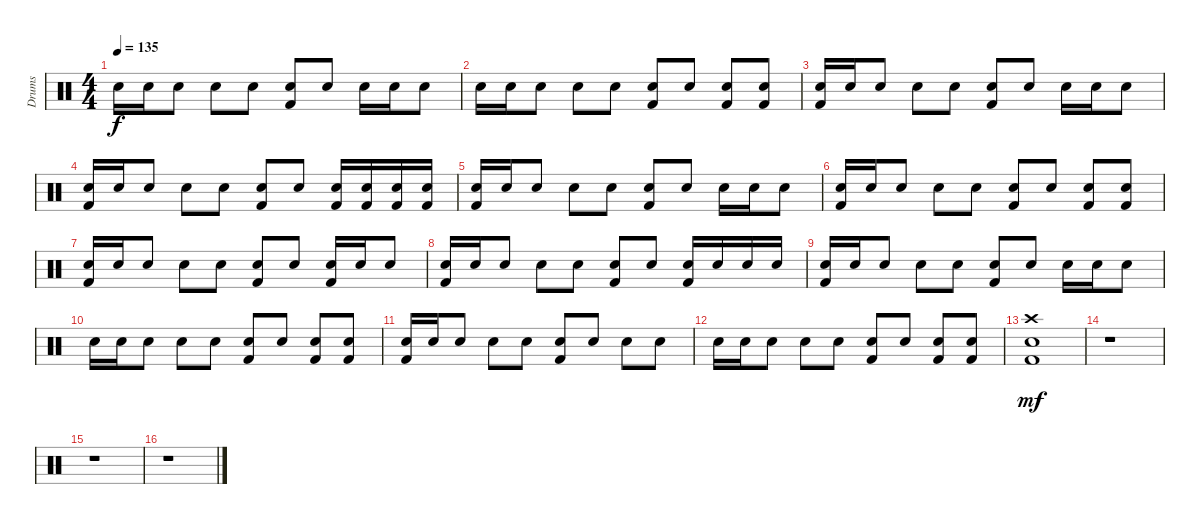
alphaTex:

\track ("Drums" "Drums") {instrument percussion}
\staff {score}
\articulation defaults
\ts (4 4)
\tempo 135
\clef neutral
\ks c "Electric Snare (hit)".16{dy f} "Electric Snare (hit)".16 "Electric Snare (hit)".8 "Electric Snare (hit)".8 "Electric Snare (hit)".8
("Kick (hit) 2" "Electric Snare (hit)").8 "Electric Snare (hit)".8 "Electric Snare (hit)".16 "Electric Snare (hit)".16 "Electric Snare (hit)".8 |
"Electric Snare (hit)".16 "Electric Snare (hit)".16 "Electric Snare (hit)".8 "Electric Snare (hit)".8 "Electric Snare (hit)".8 ("Kick (hit) 2" "Electric Snare (hit)").8 "Electric Snare (hit)".8 ("Kick (hit) 2" "Electric Snare (hit)").8 ("Kick (hit) 2" "Electric Snare (hit)").8 |
("Kick (hit) 2" "Electric Snare (hit)").16 "Electric Snare (hit)".16 "Electric Snare (hit)".8 "Electric Snare (hit)".8 "Electric Snare (hit)".8 ("Kick (hit) 2" "Electric Snare (hit)").8 "Electric Snare (hit)".8 "Electric Snare (hit)".16 "Electric Snare (hit)".16 "Electric Snare (hit)".8 |
("Kick (hit) 2" "Electric Snare (hit)").16 "Electric Snare (hit)".16 "Electric Snare (hit)".8 "Electric Snare (hit)".8 "Electric Snare (hit)".8 ("Kick (hit) 2" "Electric Snare (hit)").8 "Electric Snare (hit)".8 ("Kick (hit) 2" "Electric Snare (hit)").16 ("Kick (hit) 2" "Electric Snare (hit)").16 ("Kick (hit) 2" "Electric Snare (hit)").16 ("Kick (hit) 2" "Electric Snare (hit)").16 |
("Kick (hit) 2" "Electric Snare (hit)").16 "Electric Snare (hit)".16 "Electric Snare (hit)".8 "Electric Snare (hit)".8 "Electric Snare (hit)".8 ("Kick (hit) 2" "Electric Snare (hit)").8 "Electric Snare (hit)".8 "Electric Snare (hit)".16 "Electric Snare (hit)".16 "Electric Snare (hit)".8 |
("Kick (hit) 2" "Electric Snare (hit)").16 "Electric Snare (hit)".16 "Electric Snare (hit)".8 "Electric Snare (hit)".8 "Electric Snare (hit)".8 ("Kick (hit) 2" "Electric Snare (hit)").8 "Electric Snare (hit)".8 ("Kick (hit) 2" "Electric Snare (hit)").8 ("Kick (hit) 2" "Electric Snare (hit)").8 |
("Kick (hit) 2" "Electric Snare (hit)").16 "Electric Snare (hit)".16 "Electric Snare (hit)".8 "Electric Snare (hit)".8 "Electric Snare (hit)".8 ("Kick (hit) 2" "Electric Snare (hit)").8 "Electric Snare (hit)".8 ("Kick (hit) 2" "Electric Snare (hit)").16 "Electric Snare (hit)".16 "Electric Snare (hit)".8 |
("Kick (hit) 2" "Electric Snare (hit)").16 "Electric Snare (hit)".16 "Electric Snare (hit)".8 "Electric Snare (hit)".8 "Electric Snare (hit)".8 ("Kick (hit) 2" "Electric Snare (hit)").8 "Electric Snare (hit)".8 ("Kick (hit) 2" "Electric Snare (hit)").16 "Electric Snare (hit)".16 "Electric Snare (hit)".16 "Electric Snare (hit)".16 |
("Kick (hit) 2" "Electric Snare (hit)").16 "Electric Snare (hit)".16 "Electric Snare (hit)".8 "Electric Snare (hit)".8 "Electric Snare (hit)".8 ("Kick (hit) 2" "Electric Snare (hit)").8 "Electric Snare (hit)".8 "Electric Snare (hit)".16 "Electric Snare (hit)".16 "Electric Snare (hit)".8 |
"Electric Snare (hit)".16 "Electric Snare (hit)".16 "Electric Snare (hit)".8 "Electric Snare (hit)".8 "Electric Snare (hit)".8 ("Kick (hit) 2" "Electric Snare (hit)").8 "Electric Snare (hit)".8 ("Kick (hit) 2" "Electric Snare (hit)").8 ("Kick (hit) 2" "Electric Snare (hit)").8 |
("Kick (hit) 2" "Electric Snare (hit)").16 "Electric Snare (hit)".16 "Electric Snare (hit)".8 "Electric Snare (hit)".8 "Electric Snare (hit)".8 ("Kick (hit) 2" "Electric Snare (hit)").8 "Electric Snare (hit)".8 "Electric Snare (hit)".8 "Electric Snare (hit)".8 |
"Electric Snare (hit)".16 "Electric Snare (hit)".16 "Electric Snare (hit)".8 "Electric Snare (hit)".8 "Electric Snare (hit)".8 ("Kick (hit) 2" "Electric Snare (hit)").8 "Electric Snare (hit)".8 ("Kick (hit) 2" "Electric Snare (hit)").8 ("Kick (hit) 2" "Electric Snare (hit)").8 |
("Electric Snare (hit)" "Kick (hit) 2" "Crash high (hit)").1{dy mf} |
r.1 |
r.1 |
r.1
